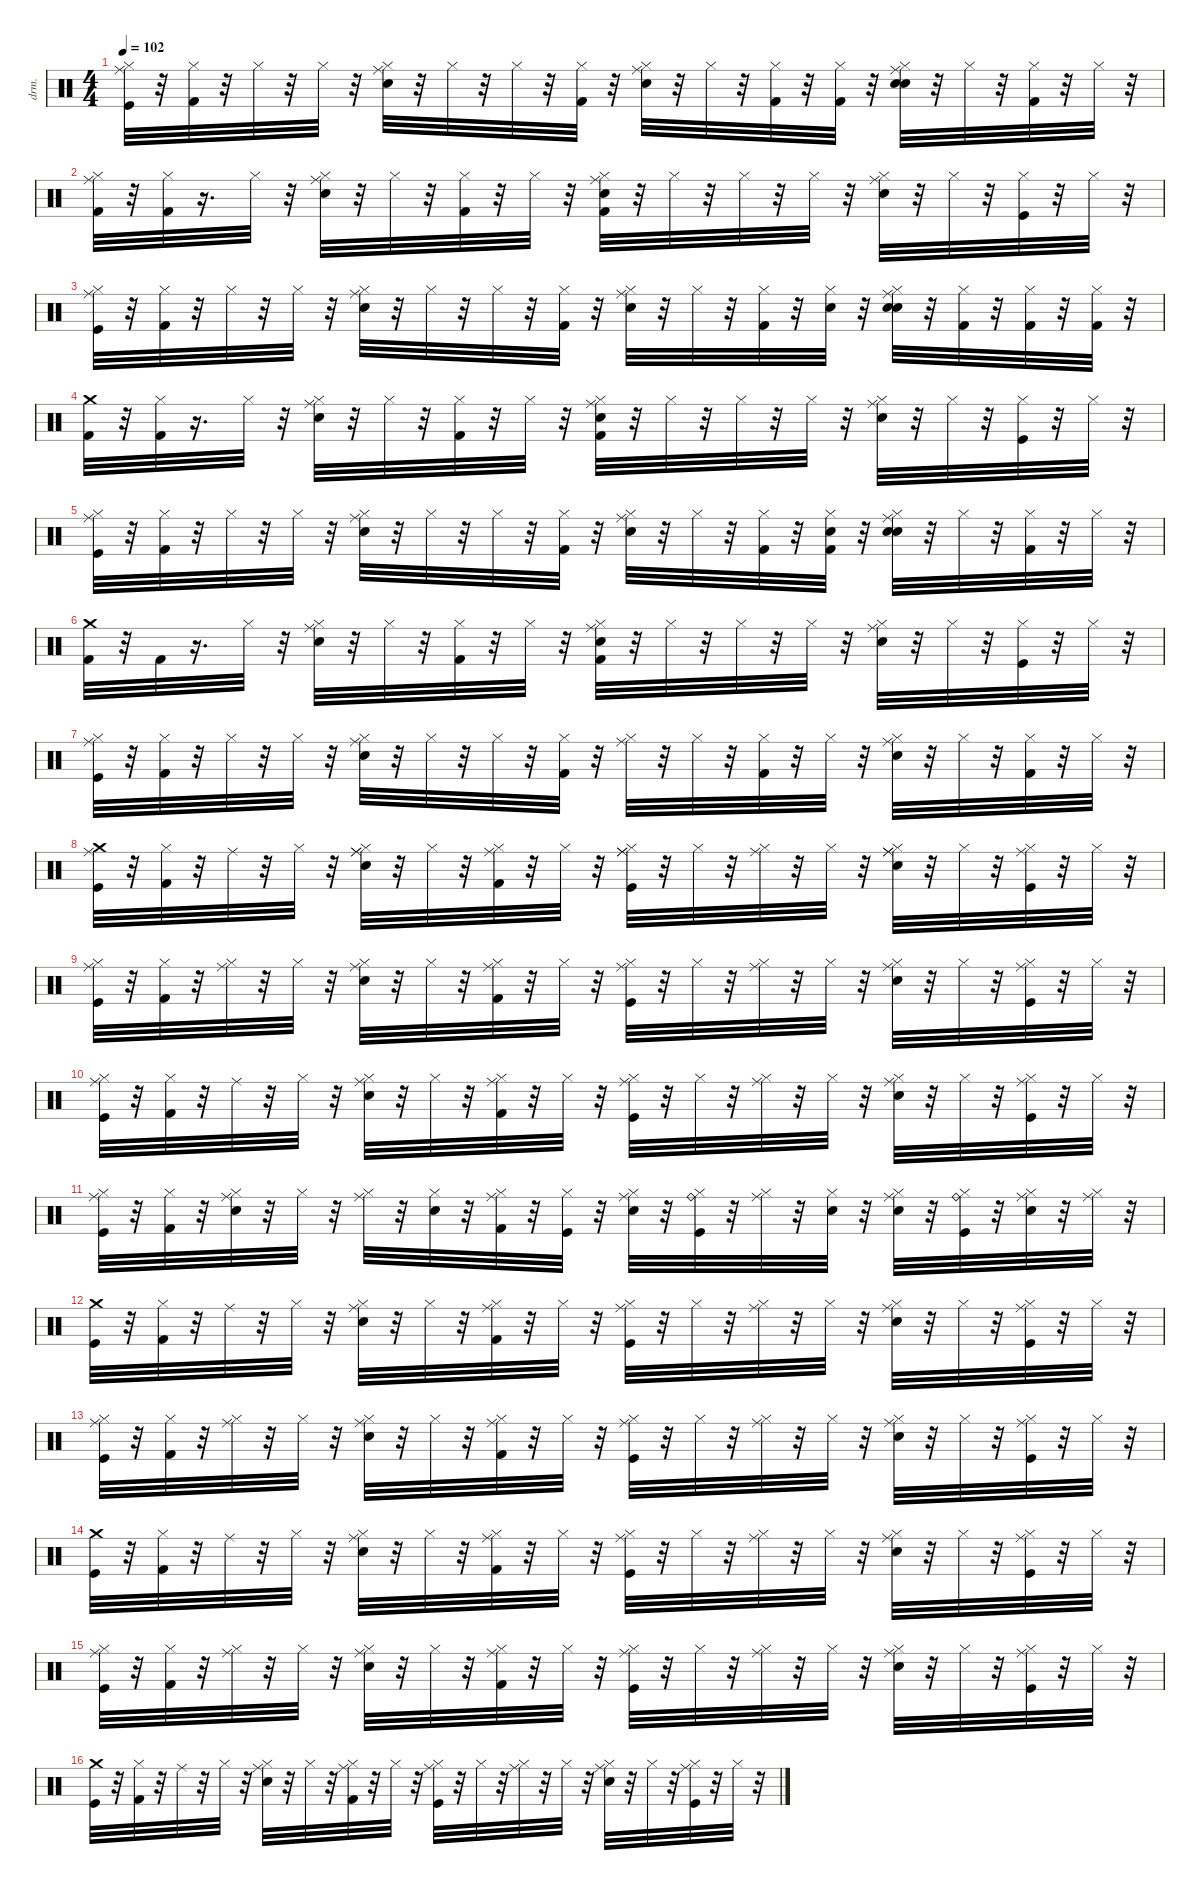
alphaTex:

\defaultSystemsLayout 4
\hideDynamics
\bracketExtendMode nobrackets
\otherSystemsTrackNameOrientation horizontal
\track ("Nick Mason / Gary Wallis" "drm.") {instrument percussion}
\staff {score}
\articulation defaults
\ts (4 4)
\tempo 102
\clef neutral
\ks c
("Kick (hit)" "Hi-Hat (closed)" "Ride (middle)").32{dy fff beam Down} r.32{beam Down} ("Hi-Hat (closed)" "Kick (hit) 2").32{dy pp beam Down} r.32{beam Down} "Hi-Hat (closed)".32{dy ppp beam Down} r.32{beam Down} "Hi-Hat (closed)".32{dy p beam Down} r.32{beam Down} ("Snare (hit) 2" "Hi-Hat (closed)" "Ride (middle)").32{beam Down} r.32{beam Down} "Hi-Hat (closed)".32{dy ppp beam Down} r.32{beam Down} "Hi-Hat (closed)".32{dy mp beam Down} r.32{beam Down} ("Hi-Hat (closed)" "Kick (hit) 2").32{dy ppp beam Down} r.32{beam Down} ("Snare (hit) 2" "Hi-Hat (closed)" "Ride (middle)").32{dy ff beam Down} r.32{beam Down} "Hi-Hat (closed)".32{dy pp beam Down} r.32{beam Down} ("Hi-Hat (closed)" "Kick (hit) 2").32{dy ppp beam Down} r.32{beam Down} ("Hi-Hat (closed)" "Kick (hit) 2").32{dy p beam Down} r.32{beam Down} ("Snare (hit) 2" "Snare (hit) 2" "Hi-Hat (closed)" "Ride (middle)").32{beam Down} r.32{beam Down} "Hi-Hat (closed)".32{dy ppp beam Down} r.32{beam Down} ("Kick (hit) 2" "Hi-Hat (closed)").32{dy f beam Down} r.32{beam Down} "Hi-Hat (closed)".32{dy p beam Down} r.32{beam Down} |
("Kick (hit) 2" "Hi-Hat (closed)" "Ride (middle)").32{dy ff beam Down} r.32{beam Down} ("Hi-Hat (closed)" "Kick (hit) 2").32{dy mp beam Down} r.16{d beam Down} "Hi-Hat (closed)".32{dy pp beam Down} r.32{beam Down} ("Snare (hit) 2" "Hi-Hat (closed)" "Ride (middle)").32{dy p beam Down} r.32{beam Down} "Hi-Hat (closed)".32{dy pp beam Down} r.32{beam Down} ("Kick (hit) 2" "Hi-Hat (closed)").32{dy ff beam Down} r.32{beam Down} "Hi-Hat (closed)".32{dy ppp beam Down} r.32{beam Down} ("Kick (hit) 2" "Snare (hit) 2" "Hi-Hat (closed)" "Ride (middle)").32{dy f beam Down} r.32{beam Down} "Hi-Hat (closed)".32{dy ppp beam Down} r.32{beam Down} "Hi-Hat (closed)".32{dy pp beam Down} r.32{beam Down} "Hi-Hat (closed)".32{beam Down} r.32{beam Down} ("Snare (hit) 2" "Hi-Hat (closed)" "Ride (middle)").32{dy p beam Down} r.32{beam Down} "Hi-Hat (closed)".32{dy ppp beam Down} r.32{beam Down} ("Kick (hit)" "Hi-Hat (closed)").32{dy f beam Down} r.32{beam Down} "Hi-Hat (closed)".32{dy mp beam Down} r.32{beam Down} |
("Kick (hit)" "Hi-Hat (closed)" "Ride (middle)").32{dy fff beam Down} r.32{beam Down} ("Hi-Hat (closed)" "Kick (hit) 2").32{dy pp beam Down} r.32{beam Down} "Hi-Hat (closed)".32{dy ppp beam Down} r.32{beam Down} "Hi-Hat (closed)".32{dy p beam Down} r.32{beam Down} ("Snare (hit) 2" "Hi-Hat (closed)" "Ride (middle)").32{beam Down} r.32{beam Down} "Hi-Hat (closed)".32{dy ppp beam Down} r.32{beam Down} "Hi-Hat (closed)".32{dy mp beam Down} r.32{beam Down} ("Hi-Hat (closed)" "Kick (hit) 2").32{dy ppp beam Down} r.32{beam Down} ("Snare (hit) 2" "Hi-Hat (closed)" "Ride (middle)").32{dy ff beam Down} r.32{beam Down} "Hi-Hat (closed)".32{dy pp beam Down} r.32{beam Down} ("Hi-Hat (closed)" "Kick (hit) 2").32{dy ppp beam Down} r.32{beam Down} ("Snare (hit) 2" "Hi-Hat (closed)").32{dy mp beam Down} r.32{beam Down} ("Snare (hit) 2" "Snare (hit) 2" "Hi-Hat (closed)" "Ride (middle)").32{dy p beam Down} r.32{beam Down} ("Kick (hit) 2" "Hi-Hat (closed)").32{dy f beam Down} r.32{beam Down} ("Kick (hit) 2" "Hi-Hat (closed)").32{beam Down} r.32{beam Down} ("Kick (hit) 2" "Hi-Hat (closed)").32{dy ff beam Down} r.32{beam Down} |
("Kick (hit) 2" "Crash medium (hit)").32{beam Down} r.32{beam Down} ("Hi-Hat (closed)" "Kick (hit) 2").32{dy mp beam Down} r.16{d beam Down} "Hi-Hat (closed)".32{dy pp beam Down} r.32{beam Down} ("Snare (hit) 2" "Hi-Hat (closed)" "Ride (middle)").32{dy p beam Down} r.32{beam Down} "Hi-Hat (closed)".32{dy pp beam Down} r.32{beam Down} ("Kick (hit) 2" "Hi-Hat (closed)").32{dy f beam Down} r.32{beam Down} "Hi-Hat (closed)".32{dy ppp beam Down} r.32{beam Down} ("Kick (hit) 2" "Snare (hit) 2" "Hi-Hat (closed)" "Ride (middle)").32{dy f beam Down} r.32{beam Down} "Hi-Hat (closed)".32{dy ppp beam Down} r.32{beam Down} "Hi-Hat (closed)".32{dy pp beam Down} r.32{beam Down} "Hi-Hat (closed)".32{beam Down} r.32{beam Down} ("Snare (hit) 2" "Hi-Hat (closed)" "Ride (middle)").32{dy p beam Down} r.32{beam Down} "Hi-Hat (closed)".32{dy ppp beam Down} r.32{beam Down} ("Kick (hit)" "Hi-Hat (closed)").32{dy f beam Down} r.32{beam Down} "Hi-Hat (closed)".32{dy mp beam Down} r.32{beam Down} |
("Kick (hit)" "Hi-Hat (closed)" "Ride (middle)").32{dy fff beam Down} r.32{beam Down} ("Hi-Hat (closed)" "Kick (hit) 2").32{dy pp beam Down} r.32{beam Down} "Hi-Hat (closed)".32{dy ppp beam Down} r.32{beam Down} "Hi-Hat (closed)".32{dy p beam Down} r.32{beam Down} ("Snare (hit) 2" "Hi-Hat (closed)" "Ride (middle)").32{beam Down} r.32{beam Down} "Hi-Hat (closed)".32{dy ppp beam Down} r.32{beam Down} "Hi-Hat (closed)".32{dy mp beam Down} r.32{beam Down} ("Hi-Hat (closed)" "Kick (hit) 2").32{dy ppp beam Down} r.32{beam Down} ("Snare (hit) 2" "Hi-Hat (closed)" "Ride (middle)").32{dy ff beam Down} r.32{beam Down} "Hi-Hat (closed)".32{dy pp beam Down} r.32{beam Down} ("Hi-Hat (closed)" "Kick (hit) 2").32{dy ppp beam Down} r.32{beam Down} ("Snare (hit) 2" "Hi-Hat (closed)" "Kick (hit) 2").32{dy mp beam Down} r.32{beam Down} ("Snare (hit) 2" "Snare (hit) 2" "Hi-Hat (closed)" "Ride (middle)").32{dy p beam Down} r.32{beam Down} "Hi-Hat (closed)".32{dy ppp beam Down} r.32{beam Down} ("Kick (hit) 2" "Hi-Hat (closed)").32{dy f beam Down} r.32{beam Down} "Hi-Hat (closed)".32{dy p beam Down} r.32{beam Down} |
("Kick (hit) 2" "Crash medium (hit)").32{dy ff beam Down} r.32{beam Down} "Kick (hit) 2".32{dy mf beam Down} r.16{d beam Down} "Hi-Hat (closed)".32{dy pp beam Down} r.32{beam Down} ("Snare (hit) 2" "Hi-Hat (closed)" "Ride (middle)").32{dy p beam Down} r.32{beam Down} "Hi-Hat (closed)".32{dy pp beam Down} r.32{beam Down} ("Kick (hit) 2" "Hi-Hat (closed)").32{dy ff beam Down} r.32{beam Down} "Hi-Hat (closed)".32{dy ppp beam Down} r.32{beam Down} ("Kick (hit) 2" "Snare (hit) 2" "Hi-Hat (closed)" "Ride (middle)").32{dy f beam Down} r.32{beam Down} "Hi-Hat (closed)".32{dy ppp beam Down} r.32{beam Down} "Hi-Hat (closed)".32{dy pp beam Down} r.32{beam Down} "Hi-Hat (closed)".32{beam Down} r.32{beam Down} ("Snare (hit) 2" "Hi-Hat (closed)" "Ride (middle)").32{dy p beam Down} r.32{beam Down} "Hi-Hat (closed)".32{dy ppp beam Down} r.32{beam Down} ("Kick (hit)" "Hi-Hat (closed)").32{dy f beam Down} r.32{beam Down} "Hi-Hat (closed)".32{dy mp beam Down} r.32{beam Down} |
("Kick (hit)" "Hi-Hat (closed)" "Ride (middle)").32{dy fff beam Down} r.32{beam Down} ("Hi-Hat (closed)" "Kick (hit) 2").32{dy pp beam Down} r.32{beam Down} "Hi-Hat (closed)".32{dy ppp beam Down} r.32{beam Down} "Hi-Hat (closed)".32{dy p beam Down} r.32{beam Down} ("Snare (hit) 2" "Hi-Hat (closed)" "Ride (middle)").32{beam Down} r.32{beam Down} "Hi-Hat (closed)".32{dy ppp beam Down} r.32{beam Down} "Hi-Hat (closed)".32{dy mp beam Down} r.32{beam Down} ("Hi-Hat (closed)" "Kick (hit) 2").32{dy ppp beam Down} r.32{beam Down} ("Hi-Hat (closed)" "Ride (middle)").32{dy mf beam Down} r.32{beam Down} "Hi-Hat (closed)".32{dy pp beam Down} r.32{beam Down} ("Hi-Hat (closed)" "Kick (hit) 2").32{dy ppp beam Down} r.32{beam Down} "Hi-Hat (closed)".32{dy p beam Down} r.32{beam Down} ("Snare (hit) 2" "Hi-Hat (closed)" "Ride (middle)").32{beam Down} r.32{beam Down} "Hi-Hat (closed)".32{dy ppp beam Down} r.32{beam Down} ("Kick (hit) 2" "Hi-Hat (closed)").32{dy f beam Down} r.32{beam Down} "Hi-Hat (closed)".32{dy p beam Down} r.32{beam Down} |
("Kick (hit)" "Crash medium (hit)" "Ride (middle)").32{dy fff beam Down} r.32{beam Down} ("Hi-Hat (closed)" "Kick (hit) 2").32{dy mp beam Down} r.32{beam Down} "Ride (middle)".32{beam Down} r.32{beam Down} "Hi-Hat (closed)".32{dy pp beam Down} r.32{beam Down} ("Snare (hit) 2" "Hi-Hat (closed)" "Ride (middle)" "Ride (middle)").32{dy ff beam Down} r.32{beam Down} "Hi-Hat (closed)".32{dy pp beam Down} r.32{beam Down} ("Kick (hit) 2" "Hi-Hat (closed)" "Ride (middle)").32{dy f beam Down} r.32{beam Down} "Hi-Hat (closed)".32{dy ppp beam Down} r.32{beam Down} ("Kick (hit)" "Hi-Hat (closed)" "Ride (middle)" "Ride (middle)").32{dy fff beam Down} r.32{beam Down} "Hi-Hat (closed)".32{dy ppp beam Down} r.32{beam Down} ("Hi-Hat (closed)" "Ride (middle)").32{dy pp beam Down} r.32{beam Down} "Hi-Hat (closed)".32{beam Down} r.32{beam Down} ("Snare (hit) 2" "Hi-Hat (closed)" "Ride (middle)" "Ride (middle)").32{dy ff beam Down} r.32{beam Down} "Hi-Hat (closed)".32{dy ppp beam Down} r.32{beam Down} ("Kick (hit)" "Hi-Hat (closed)" "Ride (middle)").32{dy f beam Down} r.32{beam Down} "Hi-Hat (closed)".32{dy mp beam Down} r.32{beam Down} |
("Kick (hit)" "Hi-Hat (closed)" "Ride (middle)").32{dy fff beam Down} r.32{beam Down} ("Hi-Hat (closed)" "Kick (hit) 2").32{dy pp beam Down} r.32{beam Down} ("Hi-Hat (closed)" "Ride (middle)").32{dy ppp beam Down} r.32{beam Down} "Hi-Hat (closed)".32{dy p beam Down} r.32{beam Down} ("Snare (hit) 2" "Hi-Hat (closed)" "Ride (middle)").32{dy ff beam Down} r.32{beam Down} "Hi-Hat (closed)".32{dy ppp beam Down} r.32{beam Down} ("Kick (hit) 2" "Hi-Hat (closed)" "Ride (middle)").32{dy f beam Down} r.32{beam Down} "Hi-Hat (closed)".32{dy ppp beam Down} r.32{beam Down} ("Kick (hit)" "Hi-Hat (closed)" "Ride (middle)").32{dy fff beam Down} r.32{beam Down} "Hi-Hat (closed)".32{dy pp beam Down} r.32{beam Down} ("Hi-Hat (closed)" "Ride (middle)").32{dy ppp beam Down} r.32{beam Down} "Hi-Hat (closed)".32{dy p beam Down} r.32{beam Down} ("Snare (hit) 2" "Hi-Hat (closed)" "Ride (middle)").32{dy ff beam Down} r.32{beam Down} "Hi-Hat (closed)".32{dy ppp beam Down} r.32{beam Down} ("Kick (hit)" "Hi-Hat (closed)" "Ride (middle)").32{dy f beam Down} r.32{beam Down} "Hi-Hat (closed)".32{dy p beam Down} r.32{beam Down} |
("Kick (hit)" "Hi-Hat (closed)" "Ride (middle)").32{dy fff beam Down} r.32{beam Down} ("Hi-Hat (closed)" "Kick (hit) 2").32{dy mp beam Down} r.32{beam Down} "Ride (middle)".32{beam Down} r.32{beam Down} "Hi-Hat (closed)".32{dy pp beam Down} r.32{beam Down} ("Snare (hit) 2" "Hi-Hat (closed)" "Ride (middle)").32{dy ff beam Down} r.32{beam Down} "Hi-Hat (closed)".32{dy pp beam Down} r.32{beam Down} ("Kick (hit) 2" "Hi-Hat (closed)" "Ride (middle)").32{dy f beam Down} r.32{beam Down} "Hi-Hat (closed)".32{dy ppp beam Down} r.32{beam Down} ("Kick (hit)" "Hi-Hat (closed)" "Ride (middle)").32{dy fff beam Down} r.32{beam Down} "Hi-Hat (closed)".32{dy ppp beam Down} r.32{beam Down} ("Hi-Hat (closed)" "Ride (middle)").32{dy pp beam Down} r.32{beam Down} "Hi-Hat (closed)".32{beam Down} r.32{beam Down} ("Snare (hit) 2" "Hi-Hat (closed)" "Ride (middle)").32{dy ff beam Down} r.32{beam Down} "Hi-Hat (closed)".32{dy ppp beam Down} r.32{beam Down} ("Kick (hit)" "Hi-Hat (closed)" "Ride (middle)").32{dy f beam Down} r.32{beam Down} "Hi-Hat (closed)".32{dy mp beam Down} r.32{beam Down} |
("Kick (hit)" "Hi-Hat (closed)" "Ride (middle)").32{dy fff beam Down} r.32{beam Down} ("Hi-Hat (closed)" "Kick (hit) 2").32{dy pp beam Down} r.32{beam Down} ("Snare (hit) 2" "Hi-Hat (closed)" "Ride (middle)").32{dy ff beam Down} r.32{beam Down} "Hi-Hat (closed)".32{dy p beam Down} r.32{beam Down} ("Hi-Hat (closed)" "Ride (middle)").32{dy mf beam Down} r.32{beam Down} ("Snare (hit) 2" "Hi-Hat (closed)").32{dy ff beam Down} r.32{beam Down} ("Kick (hit) 2" "Hi-Hat (closed)" "Ride (middle)").32{dy f beam Down} r.32{beam Down} ("Kick (hit)" "Hi-Hat (closed)").32{dy fff beam Down} r.32{beam Down} ("Snare (hit) 2" "Hi-Hat (closed)" "Ride (middle)").32{dy ff beam Down} r.32{beam Down} ("Kick (hit)" "Hi-Hat (closed)" "Ride (bell)").32{dy mf beam Down} r.32{beam Down} ("Hi-Hat (closed)" "Ride (middle)").32{dy ppp beam Down} r.32{beam Down} ("Snare (hit) 2" "Hi-Hat (closed)").32{dy f beam Down} r.32{beam Down} ("Snare (hit) 2" "Hi-Hat (closed)" "Ride (middle)").32{dy ff beam Down} r.32{beam Down} ("Kick (hit)" "Hi-Hat (closed)" "Ride (bell)").32{dy mf beam Down} r.32{beam Down} ("Snare (hit) 2" "Hi-Hat (closed)" "Ride (middle)").32{dy f beam Down} r.32{beam Down} ("Hi-Hat (closed)" "Ride (middle)").32{dy p beam Down} r.32{beam Down} |
("Kick (hit)" "Crash medium (hit)").32{dy fff beam Down} r.32{beam Down} ("Hi-Hat (closed)" "Kick (hit) 2").32{dy mp beam Down} r.32{beam Down} "Ride (middle)".32{beam Down} r.32{beam Down} "Hi-Hat (closed)".32{dy pp beam Down} r.32{beam Down} ("Snare (hit) 2" "Hi-Hat (closed)" "Ride (middle)").32{dy ff beam Down} r.32{beam Down} "Hi-Hat (closed)".32{dy pp beam Down} r.32{beam Down} ("Kick (hit) 2" "Hi-Hat (closed)" "Ride (middle)").32{dy f beam Down} r.32{beam Down} "Hi-Hat (closed)".32{dy ppp beam Down} r.32{beam Down} ("Kick (hit)" "Hi-Hat (closed)" "Ride (middle)").32{dy fff beam Down} r.32{beam Down} "Hi-Hat (closed)".32{dy ppp beam Down} r.32{beam Down} ("Hi-Hat (closed)" "Ride (middle)").32{dy pp beam Down} r.32{beam Down} "Hi-Hat (closed)".32{beam Down} r.32{beam Down} ("Snare (hit) 2" "Hi-Hat (closed)" "Ride (middle)").32{dy ff beam Down} r.32{beam Down} "Hi-Hat (closed)".32{dy ppp beam Down} r.32{beam Down} ("Kick (hit)" "Hi-Hat (closed)" "Ride (middle)").32{dy f beam Down} r.32{beam Down} "Hi-Hat (closed)".32{dy mp beam Down} r.32{beam Down} |
("Kick (hit)" "Hi-Hat (closed)" "Ride (middle)").32{dy fff beam Down} r.32{beam Down} ("Hi-Hat (closed)" "Kick (hit) 2").32{dy pp beam Down} r.32{beam Down} ("Hi-Hat (closed)" "Ride (middle)").32{dy ppp beam Down} r.32{beam Down} "Hi-Hat (closed)".32{dy p beam Down} r.32{beam Down} ("Snare (hit) 2" "Hi-Hat (closed)" "Ride (middle)").32{dy ff beam Down} r.32{beam Down} "Hi-Hat (closed)".32{dy ppp beam Down} r.32{beam Down} ("Kick (hit) 2" "Hi-Hat (closed)" "Ride (middle)").32{dy f beam Down} r.32{beam Down} "Hi-Hat (closed)".32{dy ppp beam Down} r.32{beam Down} ("Kick (hit)" "Hi-Hat (closed)" "Ride (middle)").32{dy fff beam Down} r.32{beam Down} "Hi-Hat (closed)".32{dy pp beam Down} r.32{beam Down} ("Hi-Hat (closed)" "Ride (middle)").32{dy ppp beam Down} r.32{beam Down} "Hi-Hat (closed)".32{dy p beam Down} r.32{beam Down} ("Snare (hit) 2" "Hi-Hat (closed)" "Ride (middle)").32{dy ff beam Down} r.32{beam Down} "Hi-Hat (closed)".32{dy ppp beam Down} r.32{beam Down} ("Kick (hit)" "Hi-Hat (closed)" "Ride (middle)").32{dy f beam Down} r.32{beam Down} "Hi-Hat (closed)".32{dy p beam Down} r.32{beam Down} |
("Kick (hit)" "Crash medium (hit)").32{dy fff beam Down} r.32{beam Down} ("Hi-Hat (closed)" "Kick (hit) 2").32{dy mp beam Down} r.32{beam Down} "Ride (middle)".32{beam Down} r.32{beam Down} "Hi-Hat (closed)".32{dy pp beam Down} r.32{beam Down} ("Snare (hit) 2" "Hi-Hat (closed)" "Ride (middle)").32{dy ff beam Down} r.32{beam Down} "Hi-Hat (closed)".32{dy pp beam Down} r.32{beam Down} ("Kick (hit) 2" "Hi-Hat (closed)" "Ride (middle)").32{dy f beam Down} r.32{beam Down} "Hi-Hat (closed)".32{dy ppp beam Down} r.32{beam Down} ("Kick (hit)" "Hi-Hat (closed)" "Ride (middle)").32{dy fff beam Down} r.32{beam Down} "Hi-Hat (closed)".32{dy ppp beam Down} r.32{beam Down} ("Hi-Hat (closed)" "Ride (middle)").32{dy pp beam Down} r.32{beam Down} "Hi-Hat (closed)".32{beam Down} r.32{beam Down} ("Snare (hit) 2" "Hi-Hat (closed)" "Ride (middle)").32{dy ff beam Down} r.32{beam Down} "Hi-Hat (closed)".32{dy ppp beam Down} r.32{beam Down} ("Kick (hit)" "Hi-Hat (closed)" "Ride (middle)").32{dy f beam Down} r.32{beam Down} "Hi-Hat (closed)".32{dy mp beam Down} r.32{beam Down} |
("Kick (hit)" "Hi-Hat (closed)" "Ride (middle)").32{dy fff beam Down} r.32{beam Down} ("Hi-Hat (closed)" "Kick (hit) 2").32{dy pp beam Down} r.32{beam Down} ("Hi-Hat (closed)" "Ride (middle)").32{dy ppp beam Down} r.32{beam Down} "Hi-Hat (closed)".32{dy p beam Down} r.32{beam Down} ("Snare (hit) 2" "Hi-Hat (closed)" "Ride (middle)").32{dy ff beam Down} r.32{beam Down} "Hi-Hat (closed)".32{dy ppp beam Down} r.32{beam Down} ("Kick (hit) 2" "Hi-Hat (closed)" "Ride (middle)").32{dy f beam Down} r.32{beam Down} "Hi-Hat (closed)".32{dy ppp beam Down} r.32{beam Down} ("Kick (hit)" "Hi-Hat (closed)" "Ride (middle)").32{dy fff beam Down} r.32{beam Down} "Hi-Hat (closed)".32{dy pp beam Down} r.32{beam Down} ("Hi-Hat (closed)" "Ride (middle)").32{dy ppp beam Down} r.32{beam Down} "Hi-Hat (closed)".32{dy p beam Down} r.32{beam Down} ("Snare (hit) 2" "Hi-Hat (closed)" "Ride (middle)").32{dy ff beam Down} r.32{beam Down} "Hi-Hat (closed)".32{dy ppp beam Down} r.32{beam Down} ("Kick (hit)" "Hi-Hat (closed)" "Ride (middle)").32{dy f beam Down} r.32{beam Down} "Hi-Hat (closed)".32{dy p beam Down} r.32{beam Down} |
("Kick (hit)" "Crash medium (hit)").32{dy fff beam Down} r.32{beam Down} ("Hi-Hat (closed)" "Kick (hit) 2").32{dy mp beam Down} r.32{beam Down} "Ride (middle)".32{dy p beam Down} r.32{beam Down} "Hi-Hat (closed)".32{dy pp beam Down} r.32{beam Down} ("Snare (hit) 2" "Hi-Hat (closed)" "Ride (middle)").32{dy ff beam Down} r.32{beam Down} "Hi-Hat (closed)".32{dy pp beam Down} r.32{beam Down} ("Kick (hit) 2" "Hi-Hat (closed)" "Ride (middle)").32{dy f beam Down} r.32{beam Down} "Hi-Hat (closed)".32{dy ppp beam Down} r.32{beam Down} ("Kick (hit)" "Hi-Hat (closed)" "Ride (middle)").32{dy fff beam Down} r.32{beam Down} "Hi-Hat (closed)".32{dy ppp beam Down} r.32{beam Down} ("Hi-Hat (closed)" "Ride (middle)").32{dy pp beam Down} r.32{beam Down} "Hi-Hat (closed)".32{beam Down} r.32{beam Down} ("Snare (hit) 2" "Hi-Hat (closed)" "Ride (middle)").32{dy ff beam Down} r.32{beam Down} "Hi-Hat (closed)".32{dy ppp beam Down} r.32{beam Down} ("Kick (hit)" "Hi-Hat (closed)" "Ride (middle)").32{dy f beam Down} r.32{beam Down} "Hi-Hat (closed)".32{dy mp beam Down} r.32{beam Down}
